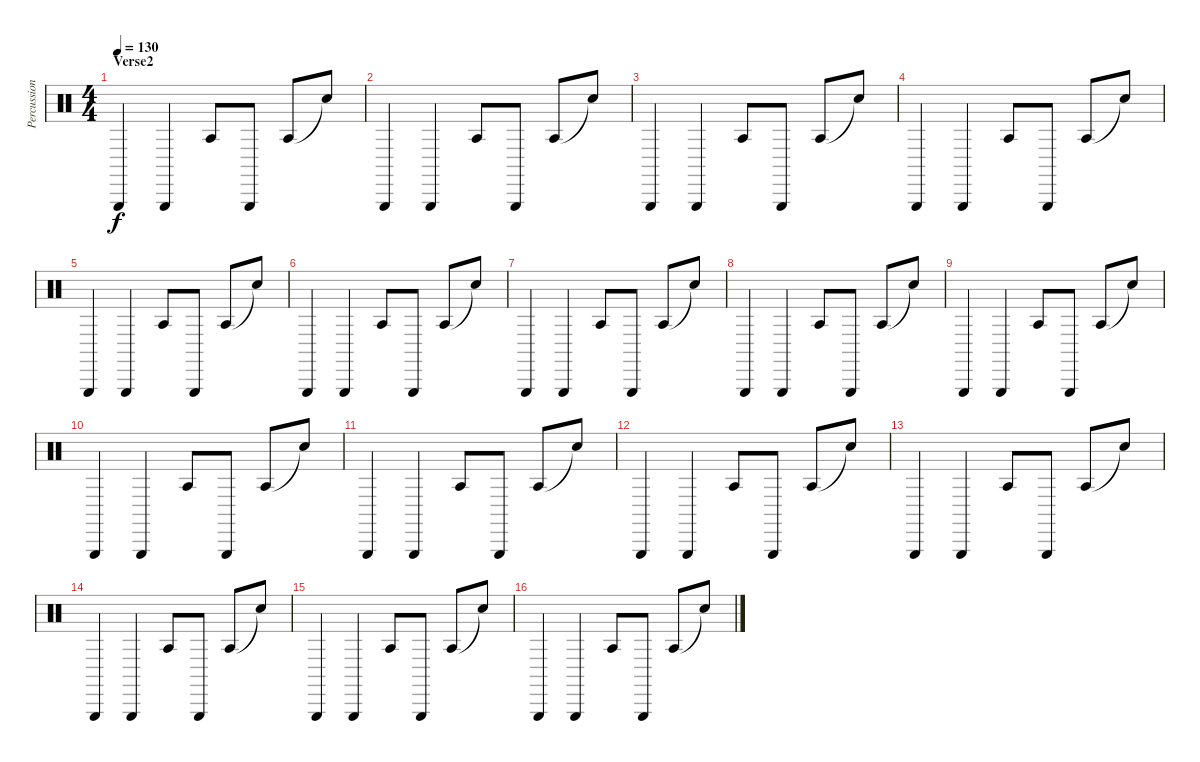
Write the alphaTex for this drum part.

\track ("Percussion" "Percussion") {instrument percussion}
\staff {score}
\articulation defaults
\ts (4 4)
\section ("" "Verse2")
\tempo 130
\clef neutral
\ks c "Triangle (hit)".4{dy f} "Triangle (hit)".4 "Agogo tow (hit)".8 "Triangle (hit)".8 "Agogo tow (hit)".8 "Snare (hit)"{t}.8
|
"Triangle (hit)".4 "Triangle (hit)".4 "Agogo tow (hit)".8 "Triangle (hit)".8 "Agogo tow (hit)".8 "Snare (hit)"{t}.8 |
"Triangle (hit)".4 "Triangle (hit)".4 "Agogo tow (hit)".8 "Triangle (hit)".8 "Agogo tow (hit)".8 "Snare (hit)"{t}.8 |
"Triangle (hit)".4 "Triangle (hit)".4 "Agogo tow (hit)".8 "Triangle (hit)".8 "Agogo tow (hit)".8 "Snare (hit)"{t}.8 |
"Triangle (hit)".4 "Triangle (hit)".4 "Agogo tow (hit)".8 "Triangle (hit)".8 "Agogo tow (hit)".8 "Snare (hit)"{t}.8 |
"Triangle (hit)".4 "Triangle (hit)".4 "Agogo tow (hit)".8 "Triangle (hit)".8 "Agogo tow (hit)".8 "Snare (hit)"{t}.8 |
"Triangle (hit)".4 "Triangle (hit)".4 "Agogo tow (hit)".8 "Triangle (hit)".8 "Agogo tow (hit)".8 "Snare (hit)"{t}.8 |
"Triangle (hit)".4 "Triangle (hit)".4 "Agogo tow (hit)".8 "Triangle (hit)".8 "Agogo tow (hit)".8 "Snare (hit)"{t}.8 |
"Triangle (hit)".4 "Triangle (hit)".4 "Agogo tow (hit)".8 "Triangle (hit)".8 "Agogo tow (hit)".8 "Snare (hit)"{t}.8 |
"Triangle (hit)".4 "Triangle (hit)".4 "Agogo tow (hit)".8 "Triangle (hit)".8 "Agogo tow (hit)".8 "Snare (hit)"{t}.8 |
"Triangle (hit)".4 "Triangle (hit)".4 "Agogo tow (hit)".8 "Triangle (hit)".8 "Agogo tow (hit)".8 "Snare (hit)"{t}.8 |
"Triangle (hit)".4 "Triangle (hit)".4 "Agogo tow (hit)".8 "Triangle (hit)".8 "Agogo tow (hit)".8 "Snare (hit)"{t}.8 |
"Triangle (hit)".4 "Triangle (hit)".4 "Agogo tow (hit)".8 "Triangle (hit)".8 "Agogo tow (hit)".8 "Snare (hit)"{t}.8 |
"Triangle (hit)".4 "Triangle (hit)".4 "Agogo tow (hit)".8 "Triangle (hit)".8 "Agogo tow (hit)".8 "Snare (hit)"{t}.8 |
"Triangle (hit)".4 "Triangle (hit)".4 "Agogo tow (hit)".8 "Triangle (hit)".8 "Agogo tow (hit)".8 "Snare (hit)"{t}.8 |
"Triangle (hit)".4 "Triangle (hit)".4 "Agogo tow (hit)".8 "Triangle (hit)".8 "Agogo tow (hit)".8 "Snare (hit)"{t}.8
